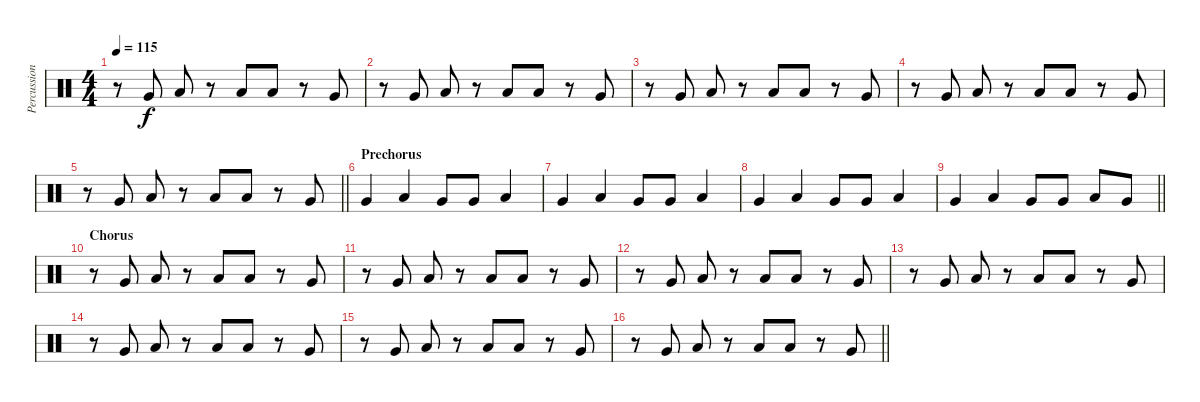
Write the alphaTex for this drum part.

\track ("Percussion" "Percussion") {instrument percussion}
\staff {score}
\articulation defaults
\ts (4 4)
\tempo 115
\clef neutral
\ks c
r.8{dy f} "Very Low Tom (hit)".8 "Low Tom (hit)".8 r.8 "Low Tom (hit)".8 "Low Tom (hit)".8 r.8 "Very Low Tom (hit)".8 |
r.8 "Very Low Tom (hit)".8 "Low Tom (hit)".8 r.8 "Low Tom (hit)".8 "Low Tom (hit)".8 r.8 "Very Low Tom (hit)".8 |
r.8 "Very Low Tom (hit)".8 "Low Tom (hit)".8 r.8 "Low Tom (hit)".8 "Low Tom (hit)".8 r.8 "Very Low Tom (hit)".8 |
r.8 "Very Low Tom (hit)".8 "Low Tom (hit)".8 r.8 "Low Tom (hit)".8 "Low Tom (hit)".8 r.8 "Very Low Tom (hit)".8 |
\barLineRight lightlight
r.8 "Very Low Tom (hit)".8 "Low Tom (hit)".8 r.8 "Low Tom (hit)".8 "Low Tom (hit)".8 r.8 "Very Low Tom (hit)".8 |
\section ("" "Prechorus")
"Very Low Tom (hit)".4 "Low Tom (hit)".4 "Very Low Tom (hit)".8 "Very Low Tom (hit)".8 "Low Tom (hit)".4 |
"Very Low Tom (hit)".4 "Low Tom (hit)".4 "Very Low Tom (hit)".8 "Very Low Tom (hit)".8 "Low Tom (hit)".4 |
"Very Low Tom (hit)".4 "Low Tom (hit)".4 "Very Low Tom (hit)".8 "Very Low Tom (hit)".8 "Low Tom (hit)".4 |
\barLineRight lightlight "Very Low Tom (hit)".4 "Low Tom (hit)".4 "Very Low Tom (hit)".8 "Very Low Tom (hit)".8 "Low Tom (hit)".8 "Very Low Tom (hit)".8
|
\section ("" "Chorus")
r.8 "Very Low Tom (hit)".8 "Low Tom (hit)".8 r.8 "Low Tom (hit)".8 "Low Tom (hit)".8 r.8 "Very Low Tom (hit)".8 |
r.8 "Very Low Tom (hit)".8 "Low Tom (hit)".8 r.8 "Low Tom (hit)".8 "Low Tom (hit)".8 r.8 "Very Low Tom (hit)".8 |
r.8 "Very Low Tom (hit)".8 "Low Tom (hit)".8 r.8 "Low Tom (hit)".8 "Low Tom (hit)".8 r.8 "Very Low Tom (hit)".8 |
r.8 "Very Low Tom (hit)".8 "Low Tom (hit)".8 r.8 "Low Tom (hit)".8 "Low Tom (hit)".8 r.8 "Very Low Tom (hit)".8 |
r.8 "Very Low Tom (hit)".8 "Low Tom (hit)".8 r.8 "Low Tom (hit)".8 "Low Tom (hit)".8 r.8 "Very Low Tom (hit)".8 |
r.8 "Very Low Tom (hit)".8 "Low Tom (hit)".8 r.8 "Low Tom (hit)".8 "Low Tom (hit)".8 r.8 "Very Low Tom (hit)".8 |
\barLineRight lightlight
r.8 "Very Low Tom (hit)".8 "Low Tom (hit)".8 r.8 "Low Tom (hit)".8 "Low Tom (hit)".8 r.8 "Very Low Tom (hit)".8
